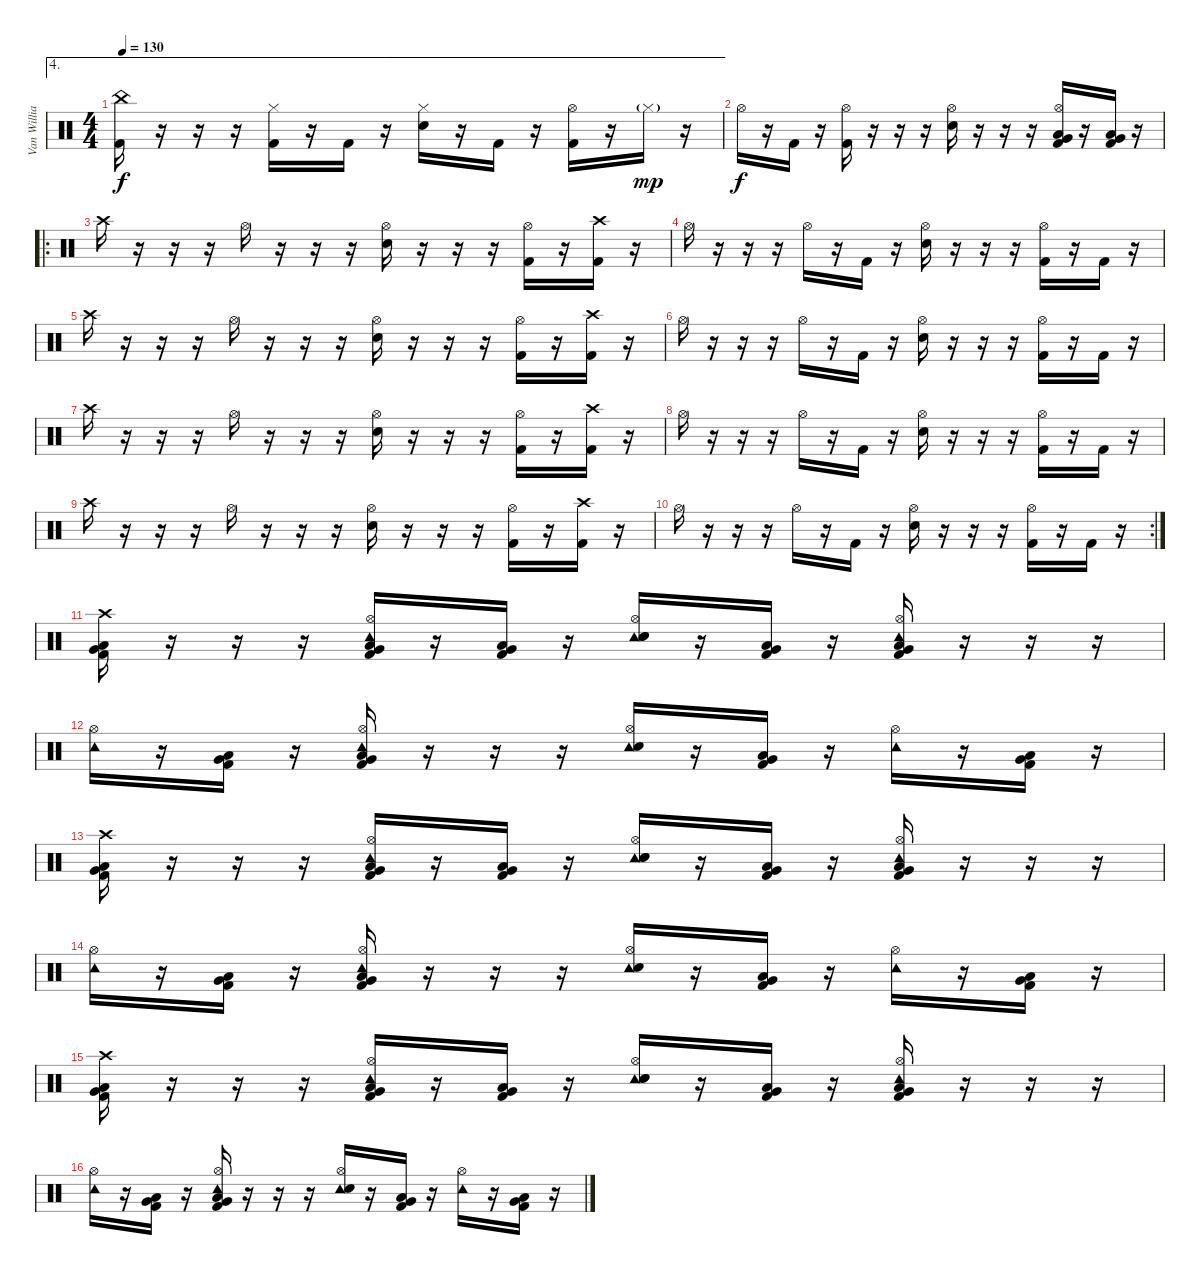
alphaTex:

\track ("Van Williams" "Van Willia") {instrument percussion}
\staff {score}
\articulation defaults
\ae 4
\ts (4 4)
\tempo 130
\clef neutral
\ks c
("China (hit)" "Kick (hit) 2").16{dy f} r.16 r.16 r.16 ("Hi-Hat (closed)" "Kick (hit) 2").16 r.16 "Kick (hit) 2".16 r.16 ("Hi-Hat (closed)" "Electric Snare (hit)").16 r.16 "Kick (hit) 2".16 r.16 ("Hi-Hat (open)" "Kick (hit) 2").16 r.16 "Hi-Hat (closed)"{g}.16{dy mp} r.16 |
"Hi-Hat (open)".16{dy f} r.16 "Kick (hit) 2".16 r.16 ("Hi-Hat (open)" "Kick (hit) 2").16 r.16 r.16 r.16 ("Hi-Hat (open)" "Electric Snare (hit)").16 r.16 r.16 r.16 ("Hi-Hat (open)" "Kick (hit) 2" "Very Low Tom (hit)" "Low Floor Tom (hit)").16 r.16 ("Kick (hit) 2" "Very Low Tom (hit)" "Low Floor Tom (hit)").16 r.16 |
\ro "Crash high (hit)".16
r.16 r.16 r.16 "Hi-Hat (open)".16 r.16 r.16 r.16 ("Hi-Hat (open)" "Electric Snare (hit)").16 r.16 r.16 r.16 ("Hi-Hat (open)" "Kick (hit) 2").16 r.16 ("Crash high (hit)" "Kick (hit) 2").16 r.16 |
"Hi-Hat (open)".16 r.16 r.16 r.16 "Hi-Hat (open)".16 r.16 "Kick (hit) 2".16 r.16 ("Hi-Hat (open)" "Electric Snare (hit)").16 r.16 r.16 r.16 ("Hi-Hat (open)" "Kick (hit) 2").16 r.16 "Kick (hit) 2".16 r.16 |
"Crash high (hit)".16 r.16 r.16 r.16 "Hi-Hat (open)".16 r.16 r.16 r.16 ("Hi-Hat (open)" "Electric Snare (hit)").16 r.16 r.16 r.16 ("Hi-Hat (open)" "Kick (hit) 2").16 r.16 ("Crash high (hit)" "Kick (hit) 2").16 r.16 |
"Hi-Hat (open)".16 r.16 r.16 r.16 "Hi-Hat (open)".16 r.16 "Kick (hit) 2".16 r.16 ("Hi-Hat (open)" "Electric Snare (hit)").16 r.16 r.16 r.16 ("Hi-Hat (open)" "Kick (hit) 2").16 r.16 "Kick (hit) 2".16 r.16 |
"Crash high (hit)".16 r.16 r.16 r.16 "Hi-Hat (open)".16 r.16 r.16 r.16 ("Hi-Hat (open)" "Electric Snare (hit)").16 r.16 r.16 r.16 ("Hi-Hat (open)" "Kick (hit) 2").16 r.16 ("Crash high (hit)" "Kick (hit) 2").16 r.16 |
"Hi-Hat (open)".16 r.16 r.16 r.16 "Hi-Hat (open)".16 r.16 "Kick (hit) 2".16 r.16 ("Hi-Hat (open)" "Electric Snare (hit)").16 r.16 r.16 r.16 ("Hi-Hat (open)" "Kick (hit) 2").16 r.16 "Kick (hit) 2".16 r.16 |
"Crash high (hit)".16 r.16 r.16 r.16 "Hi-Hat (open)".16 r.16 r.16 r.16 ("Hi-Hat (open)" "Electric Snare (hit)").16 r.16 r.16 r.16 ("Hi-Hat (open)" "Kick (hit) 2").16 r.16 ("Crash high (hit)" "Kick (hit) 2").16 r.16 |
\rc 2 "Hi-Hat (open)".16
r.16 r.16 r.16 "Hi-Hat (open)".16 r.16 "Kick (hit) 2".16 r.16 ("Hi-Hat (open)" "Electric Snare (hit)").16 r.16 r.16 r.16 ("Hi-Hat (open)" "Kick (hit) 2").16 r.16 "Kick (hit) 2".16 r.16 |
("Crash high (hit)" "Kick (hit) 2" "Very Low Tom (hit)" "Low Floor Tom (hit)").16 r.16 r.16 r.16 ("Tambourine (hit)" "Hi-Hat (open)" "Kick (hit) 2" "Very Low Tom (hit)" "Low Floor Tom (hit)").16 r.16 ("Kick (hit) 2" "Very Low Tom (hit)" "Low Floor Tom (hit)").16 r.16 ("Tambourine (hit)" "Hi-Hat (open)" "Electric Snare (hit)" "Electric Snare (hit)").16 r.16 ("Kick (hit) 2" "Very Low Tom (hit)" "Low Floor Tom (hit)").16 r.16 ("Tambourine (hit)" "Hi-Hat (open)" "Kick (hit) 2" "Very Low Tom (hit)" "Low Floor Tom (hit)").16 r.16 r.16 r.16 |
("Tambourine (hit)" "Hi-Hat (open)").16 r.16 ("Kick (hit) 2" "Very Low Tom (hit)" "Low Floor Tom (hit)").16 r.16 ("Tambourine (hit)" "Hi-Hat (open)" "Kick (hit) 2" "Very Low Tom (hit)" "Low Floor Tom (hit)").16 r.16 r.16 r.16 ("Tambourine (hit)" "Hi-Hat (open)" "Electric Snare (hit)").16 r.16 ("Kick (hit) 2" "Very Low Tom (hit)" "Low Floor Tom (hit)").16 r.16 ("Tambourine (hit)" "Hi-Hat (open)").16 r.16 ("Kick (hit) 2" "Very Low Tom (hit)" "Low Floor Tom (hit)").16 r.16 |
("Crash high (hit)" "Kick (hit) 2" "Very Low Tom (hit)" "Low Floor Tom (hit)").16 r.16 r.16 r.16 ("Tambourine (hit)" "Hi-Hat (open)" "Kick (hit) 2" "Very Low Tom (hit)" "Low Floor Tom (hit)").16 r.16 ("Kick (hit) 2" "Very Low Tom (hit)" "Low Floor Tom (hit)").16 r.16 ("Tambourine (hit)" "Hi-Hat (open)" "Electric Snare (hit)" "Electric Snare (hit)").16 r.16 ("Kick (hit) 2" "Very Low Tom (hit)" "Low Floor Tom (hit)").16 r.16 ("Tambourine (hit)" "Hi-Hat (open)" "Kick (hit) 2" "Very Low Tom (hit)" "Low Floor Tom (hit)").16 r.16 r.16 r.16 |
("Tambourine (hit)" "Hi-Hat (open)").16 r.16 ("Kick (hit) 2" "Very Low Tom (hit)" "Low Floor Tom (hit)").16 r.16 ("Tambourine (hit)" "Hi-Hat (open)" "Kick (hit) 2" "Very Low Tom (hit)" "Low Floor Tom (hit)").16 r.16 r.16 r.16 ("Tambourine (hit)" "Hi-Hat (open)" "Electric Snare (hit)").16 r.16 ("Kick (hit) 2" "Very Low Tom (hit)" "Low Floor Tom (hit)").16 r.16 ("Tambourine (hit)" "Hi-Hat (open)").16 r.16 ("Kick (hit) 2" "Very Low Tom (hit)" "Low Floor Tom (hit)").16 r.16 |
("Crash high (hit)" "Kick (hit) 2" "Very Low Tom (hit)" "Low Floor Tom (hit)").16 r.16 r.16 r.16 ("Tambourine (hit)" "Hi-Hat (open)" "Kick (hit) 2" "Very Low Tom (hit)" "Low Floor Tom (hit)").16 r.16 ("Kick (hit) 2" "Very Low Tom (hit)" "Low Floor Tom (hit)").16 r.16 ("Tambourine (hit)" "Hi-Hat (open)" "Electric Snare (hit)" "Electric Snare (hit)").16 r.16 ("Kick (hit) 2" "Very Low Tom (hit)" "Low Floor Tom (hit)").16 r.16 ("Tambourine (hit)" "Hi-Hat (open)" "Kick (hit) 2" "Very Low Tom (hit)" "Low Floor Tom (hit)").16 r.16 r.16 r.16 |
("Tambourine (hit)" "Hi-Hat (open)").16 r.16 ("Kick (hit) 2" "Very Low Tom (hit)" "Low Floor Tom (hit)").16 r.16 ("Tambourine (hit)" "Hi-Hat (open)" "Kick (hit) 2" "Very Low Tom (hit)" "Low Floor Tom (hit)").16 r.16 r.16 r.16 ("Tambourine (hit)" "Hi-Hat (open)" "Electric Snare (hit)").16 r.16 ("Kick (hit) 2" "Very Low Tom (hit)" "Low Floor Tom (hit)").16 r.16 ("Tambourine (hit)" "Hi-Hat (open)").16 r.16 ("Kick (hit) 2" "Very Low Tom (hit)" "Low Floor Tom (hit)").16 r.16
